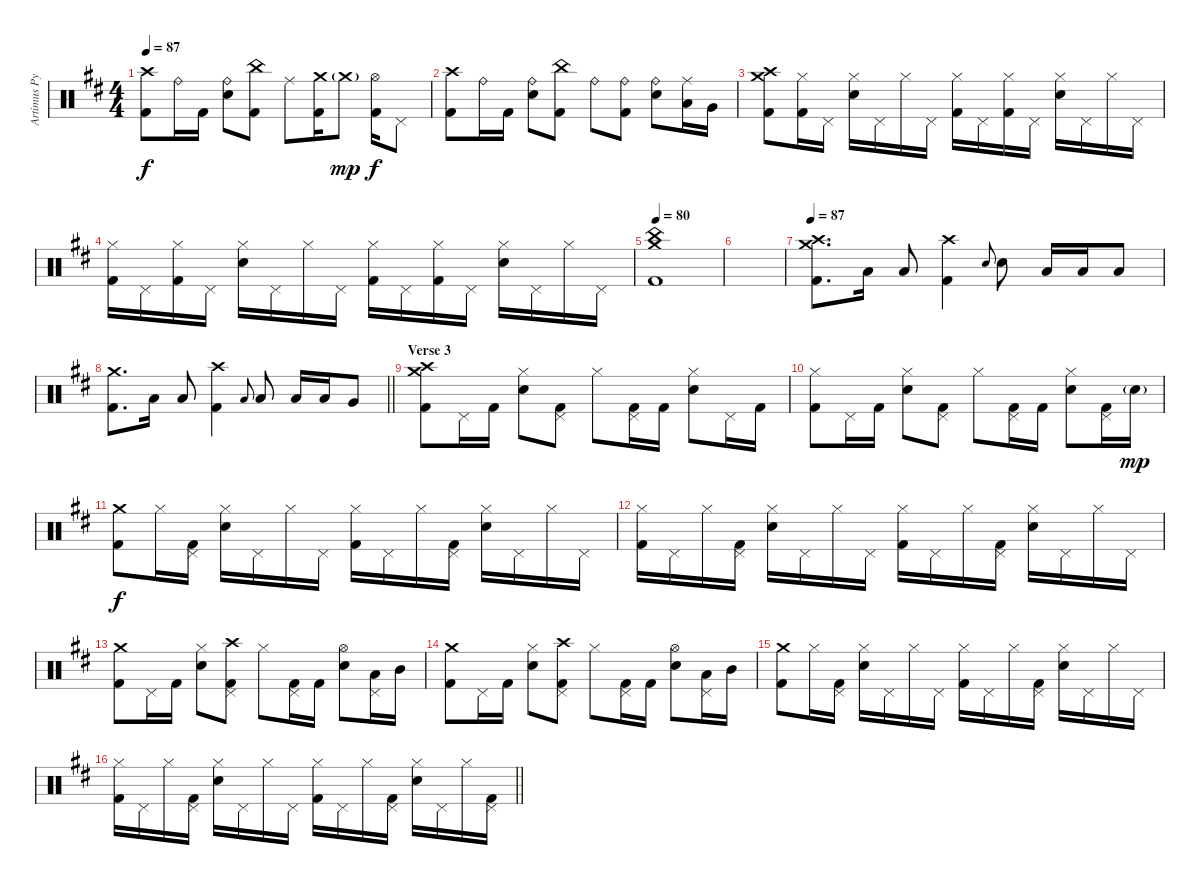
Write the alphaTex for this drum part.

\track ("Artimus Pyle - Drums" "Artimus Py") {instrument percussion}
\staff {score}
\articulation defaults
\ts (4 4)
\tempo 87
\clef neutral
\ks d
("Crash high (hit)" "Kick (hit) 2").8{dy f} "Ride (bell)".16 "Kick (hit) 2".16 ("Ride (bell)" "Snare (hit) 2").8 ("China (hit)" "Kick (hit) 2").8 "Ride (middle)".8 ("Crash medium (hit)" "Kick (hit) 2").16 "Crash medium (hit)"{g}.8{dy mp} ("Hi-Hat (open)" "Kick (hit) 2").16{dy f} "Pedal Hi-Hat (hit)".8 |
("Crash high (hit)" "Kick (hit) 2").8 "Ride (bell)".16 "Kick (hit) 2".16 ("Ride (bell)" "Snare (hit) 2").8 ("China (hit)" "Kick (hit) 2").8 "Ride (bell)".8 ("Ride (bell)" "Kick (hit) 2").8 ("Ride (bell)" "Snare (hit) 2").8 ("Ride (middle)" "Low Tom (hit)").16 "Very Low Tom (hit)".16 |
("Crash medium (hit)" "Crash high (hit)" "Kick (hit) 2").8 ("Hi-Hat (closed)" "Kick (hit) 2").16 "Pedal Hi-Hat (hit)".16 ("Snare (hit) 2" "Hi-Hat (closed)").16 "Pedal Hi-Hat (hit)".16 "Hi-Hat (closed)".16 "Pedal Hi-Hat (hit)".16 ("Hi-Hat (closed)" "Kick (hit) 2").16 "Pedal Hi-Hat (hit)".16 ("Hi-Hat (closed)" "Kick (hit) 2").16 "Pedal Hi-Hat (hit)".16 ("Snare (hit) 2" "Hi-Hat (closed)").16 "Pedal Hi-Hat (hit)".16 "Hi-Hat (closed)".16 "Pedal Hi-Hat (hit)".16 |
("Hi-Hat (closed)" "Kick (hit) 2").16 "Pedal Hi-Hat (hit)".16 ("Hi-Hat (closed)" "Kick (hit) 2").16 "Pedal Hi-Hat (hit)".16 ("Snare (hit) 2" "Hi-Hat (closed)").16 "Pedal Hi-Hat (hit)".16 "Hi-Hat (closed)".16 "Pedal Hi-Hat (hit)".16 ("Hi-Hat (closed)" "Kick (hit) 2").16 "Pedal Hi-Hat (hit)".16 ("Hi-Hat (closed)" "Kick (hit) 2").16 "Pedal Hi-Hat (hit)".16 ("Snare (hit) 2" "Hi-Hat (closed)").16 "Pedal Hi-Hat (hit)".16 "Hi-Hat (closed)".16 "Pedal Hi-Hat (hit)".16 |
\tempo 80
("Crash medium (hit)" "China (hit)" "Kick (hit) 2").1 |
|
\tempo 87
("Crash medium (hit)" "Crash high (hit)" "Kick (hit) 2").8{d} "Low Floor Tom (hit)".16 "Low Floor Tom (hit)".8 ("Crash high (hit)" "Kick (hit) 2").4 "Snare (hit) 2".8{gr onbeat} "Snare (hit) 2".8 "Low Floor Tom (hit)".16 "Low Floor Tom (hit)".16 "Low Floor Tom (hit)".8 |
\barLineRight lightlight
("Crash medium (hit)" "Kick (hit) 2").8{d} "Low Floor Tom (hit)".16 "Low Floor Tom (hit)".8 ("Crash high (hit)" "Kick (hit) 2").4 "Low Floor Tom (hit)".8{gr onbeat} "Low Floor Tom (hit)".8 "Low Tom (hit)".16 "Low Tom (hit)".16 "Very Low Tom (hit)".8 |
\section ("" "Verse 3")
("Crash medium (hit)" "Crash high (hit)" "Kick (hit) 2").8 "Pedal Hi-Hat (hit)".16 "Kick (hit) 2".16 ("Snare (hit) 2" "Hi-Hat (closed)").8 ("Pedal Hi-Hat (hit)" "Kick (hit) 2").8 "Hi-Hat (closed)".8 ("Pedal Hi-Hat (hit)" "Kick (hit) 2").16 "Kick (hit) 2".16 ("Snare (hit) 2" "Hi-Hat (closed)").8 "Pedal Hi-Hat (hit)".16 "Kick (hit) 2".16 |
("Hi-Hat (closed)" "Kick (hit) 2").8 "Pedal Hi-Hat (hit)".16 "Kick (hit) 2".16 ("Snare (hit) 2" "Hi-Hat (closed)").8 ("Pedal Hi-Hat (hit)" "Kick (hit) 2").8 "Hi-Hat (closed)".8 ("Pedal Hi-Hat (hit)" "Kick (hit) 2").16 "Kick (hit) 2".16 ("Snare (hit) 2" "Hi-Hat (closed)").8 ("Pedal Hi-Hat (hit)" "Kick (hit) 2").16 "Snare (hit) 2"{g}.16{dy mp} |
("Crash medium (hit)" "Kick (hit) 2").8{dy f} "Hi-Hat (closed)".16 ("Pedal Hi-Hat (hit)" "Kick (hit) 2").16 ("Snare (hit) 2" "Hi-Hat (closed)").16 "Pedal Hi-Hat (hit)".16 "Hi-Hat (closed)".16 "Pedal Hi-Hat (hit)".16 ("Hi-Hat (closed)" "Kick (hit) 2").16 "Pedal Hi-Hat (hit)".16 "Hi-Hat (closed)".16 ("Pedal Hi-Hat (hit)" "Kick (hit) 2").16 ("Snare (hit) 2" "Hi-Hat (closed)").16 "Pedal Hi-Hat (hit)".16 "Hi-Hat (closed)".16 "Pedal Hi-Hat (hit)".16 |
("Hi-Hat (closed)" "Kick (hit) 2").16 "Pedal Hi-Hat (hit)".16 "Hi-Hat (closed)".16 ("Pedal Hi-Hat (hit)" "Kick (hit) 2").16 ("Snare (hit) 2" "Hi-Hat (closed)").16 "Pedal Hi-Hat (hit)".16 "Hi-Hat (closed)".16 "Pedal Hi-Hat (hit)".16 ("Hi-Hat (closed)" "Kick (hit) 2").16 "Pedal Hi-Hat (hit)".16 "Hi-Hat (closed)".16 ("Pedal Hi-Hat (hit)" "Kick (hit) 2").16 ("Snare (hit) 2" "Hi-Hat (closed)").16 "Pedal Hi-Hat (hit)".16 "Hi-Hat (closed)".16 "Pedal Hi-Hat (hit)".16 |
("Crash medium (hit)" "Kick (hit) 2").8 "Pedal Hi-Hat (hit)".16 "Kick (hit) 2".16 ("Snare (hit) 2" "Hi-Hat (closed)").8 ("Crash high (hit)" "Pedal Hi-Hat (hit)" "Kick (hit) 2").8 "Hi-Hat (closed)".8 ("Pedal Hi-Hat (hit)" "Kick (hit) 2").16 "Kick (hit) 2".16 ("Snare (hit) 2" "Hi-Hat (open)").8 ("Pedal Hi-Hat (hit)" "Low Floor Tom (hit)").16 "Mid Tom (hit)".16 |
("Crash medium (hit)" "Kick (hit) 2").8 "Pedal Hi-Hat (hit)".16 "Kick (hit) 2".16 ("Snare (hit) 2" "Hi-Hat (closed)").8 ("Crash high (hit)" "Pedal Hi-Hat (hit)" "Kick (hit) 2").8 "Hi-Hat (closed)".8 ("Pedal Hi-Hat (hit)" "Kick (hit) 2").16 "Kick (hit) 2".16 ("Snare (hit) 2" "Hi-Hat (open)").8 ("Pedal Hi-Hat (hit)" "Low Floor Tom (hit)").16 "Mid Tom (hit)".16 |
("Crash medium (hit)" "Kick (hit) 2").8 "Hi-Hat (closed)".16 ("Pedal Hi-Hat (hit)" "Kick (hit) 2").16 ("Snare (hit) 2" "Hi-Hat (closed)").16 "Pedal Hi-Hat (hit)".16 "Hi-Hat (closed)".16 "Pedal Hi-Hat (hit)".16 ("Hi-Hat (closed)" "Kick (hit) 2").16 "Pedal Hi-Hat (hit)".16 "Hi-Hat (closed)".16 ("Pedal Hi-Hat (hit)" "Kick (hit) 2").16 ("Snare (hit) 2" "Hi-Hat (closed)").16 "Pedal Hi-Hat (hit)".16 "Hi-Hat (closed)".16 "Pedal Hi-Hat (hit)".16 |
\barLineRight lightlight
("Hi-Hat (closed)" "Kick (hit) 2").16 "Pedal Hi-Hat (hit)".16 "Hi-Hat (closed)".16 ("Pedal Hi-Hat (hit)" "Kick (hit) 2").16 ("Snare (hit) 2" "Hi-Hat (closed)").16 "Pedal Hi-Hat (hit)".16 "Hi-Hat (closed)".16 "Pedal Hi-Hat (hit)".16 ("Hi-Hat (closed)" "Kick (hit) 2").16 "Pedal Hi-Hat (hit)".16 "Hi-Hat (closed)".16 ("Pedal Hi-Hat (hit)" "Kick (hit) 2").16 ("Snare (hit) 2" "Hi-Hat (closed)").16 "Pedal Hi-Hat (hit)".16 "Hi-Hat (closed)".16 ("Pedal Hi-Hat (hit)" "Kick (hit) 2").16
